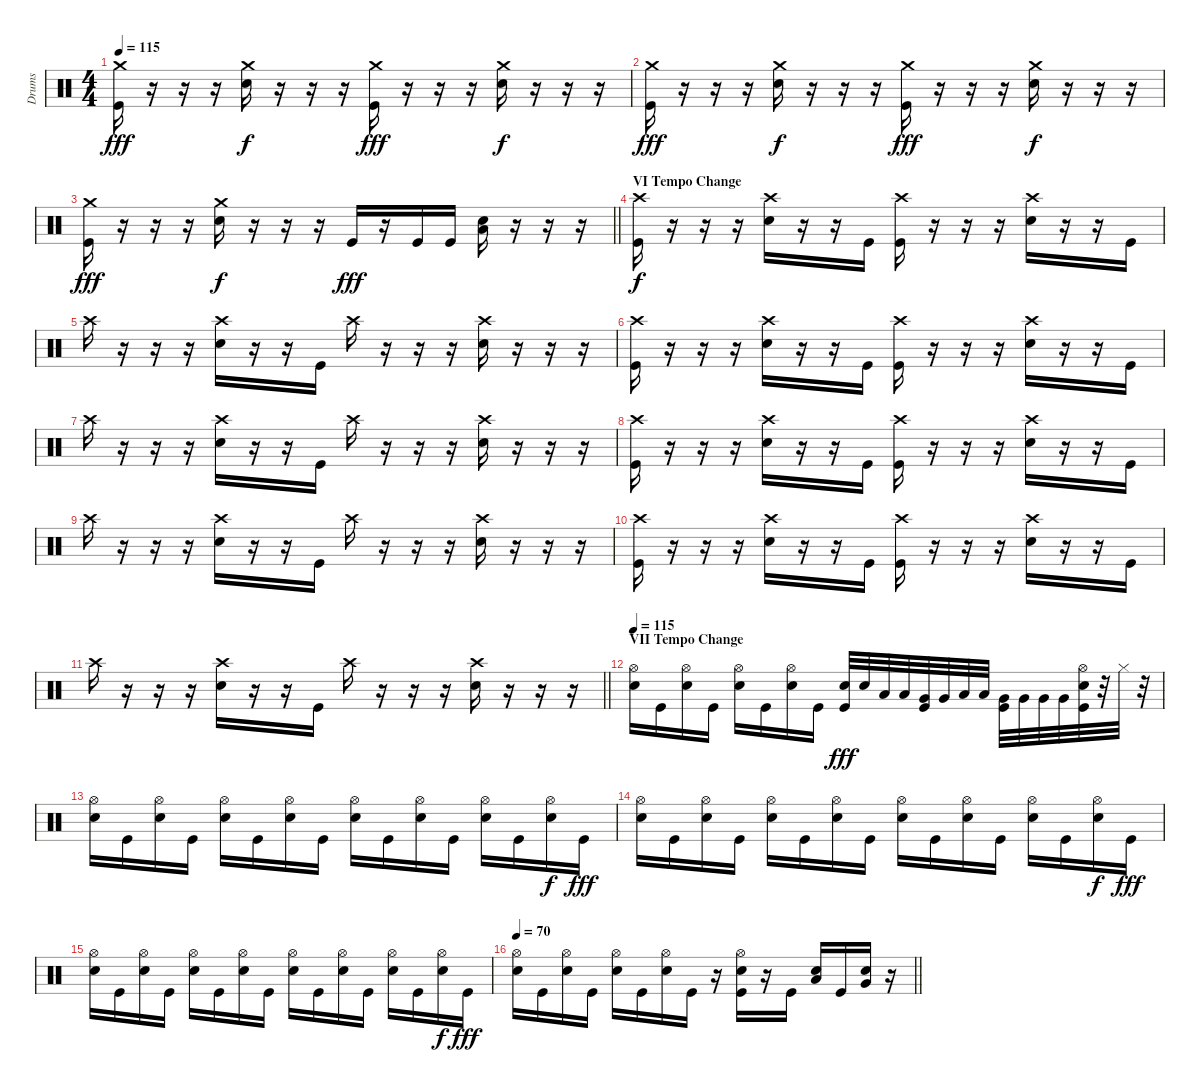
\track ("Drums" "Drums") {instrument percussion}
\staff {score}
\articulation defaults
\ts (4 4)
\tempo 115
\clef neutral
\ks c
("Crash medium (hit)" "Kick (hit)").16{dy fff} r.16 r.16 r.16 ("Crash medium (hit)" "Electric Snare (hit)").16{dy f} r.16 r.16 r.16 ("Crash medium (hit)" "Kick (hit)").16{dy fff} r.16 r.16 r.16 ("Crash medium (hit)" "Electric Snare (hit)").16{dy f} r.16 r.16 r.16 |
("Crash medium (hit)" "Kick (hit)").16{dy fff} r.16 r.16 r.16 ("Crash medium (hit)" "Electric Snare (hit)").16{dy f} r.16 r.16 r.16 ("Crash medium (hit)" "Kick (hit)").16{dy fff} r.16 r.16 r.16 ("Crash medium (hit)" "Electric Snare (hit)").16{dy f} r.16 r.16 r.16 |
\barLineRight lightlight
("Crash medium (hit)" "Kick (hit)").16{dy fff} r.16 r.16 r.16 ("Crash medium (hit)" "Electric Snare (hit)").16{dy f} r.16 r.16 r.16 "Kick (hit)".16{dy fff} r.16 "Kick (hit)".16 "Kick (hit)".16 ("Electric Snare (hit)" "Low Floor Tom (hit)").16 r.16 r.16 r.16 |
\section ("" "VI Tempo Change")
("Crash high (hit)" "Kick (hit)").16{dy f} r.16 r.16 r.16 ("Crash high (hit)" "Electric Snare (hit)").16 r.16 r.16 "Kick (hit)".16 ("Crash high (hit)" "Kick (hit)").16 r.16 r.16 r.16 ("Crash high (hit)" "Electric Snare (hit)").16 r.16 r.16 "Kick (hit)".16 |
"Crash high (hit)".16 r.16 r.16 r.16 ("Crash high (hit)" "Electric Snare (hit)").16 r.16 r.16 "Kick (hit)".16 "Crash high (hit)".16 r.16 r.16 r.16 ("Crash high (hit)" "Electric Snare (hit)").16 r.16 r.16 r.16 |
("Crash high (hit)" "Kick (hit)").16 r.16 r.16 r.16 ("Crash high (hit)" "Electric Snare (hit)").16 r.16 r.16 "Kick (hit)".16 ("Crash high (hit)" "Kick (hit)").16 r.16 r.16 r.16 ("Crash high (hit)" "Electric Snare (hit)").16 r.16 r.16 "Kick (hit)".16 |
"Crash high (hit)".16 r.16 r.16 r.16 ("Crash high (hit)" "Electric Snare (hit)").16 r.16 r.16 "Kick (hit)".16 "Crash high (hit)".16 r.16 r.16 r.16 ("Crash high (hit)" "Electric Snare (hit)").16 r.16 r.16 r.16 |
("Crash high (hit)" "Kick (hit)").16 r.16 r.16 r.16 ("Crash high (hit)" "Electric Snare (hit)").16 r.16 r.16 "Kick (hit)".16 ("Crash high (hit)" "Kick (hit)").16 r.16 r.16 r.16 ("Crash high (hit)" "Electric Snare (hit)").16 r.16 r.16 "Kick (hit)".16 |
"Crash high (hit)".16 r.16 r.16 r.16 ("Crash high (hit)" "Electric Snare (hit)").16 r.16 r.16 "Kick (hit)".16 "Crash high (hit)".16 r.16 r.16 r.16 ("Crash high (hit)" "Electric Snare (hit)").16 r.16 r.16 r.16 |
("Crash high (hit)" "Kick (hit)").16 r.16 r.16 r.16 ("Crash high (hit)" "Electric Snare (hit)").16 r.16 r.16 "Kick (hit)".16 ("Crash high (hit)" "Kick (hit)").16 r.16 r.16 r.16 ("Crash high (hit)" "Electric Snare (hit)").16 r.16 r.16 "Kick (hit)".16 |
\barLineRight lightlight "Crash high (hit)".16
r.16 r.16 r.16 ("Crash high (hit)" "Electric Snare (hit)").16 r.16 r.16 "Kick (hit)".16 "Crash high (hit)".16 r.16 r.16 r.16 ("Crash high (hit)" "Electric Snare (hit)").16 r.16 r.16 r.16 |
\section ("" "VII Tempo Change")
\tempo 115
("Hi-Hat (open)" "Electric Snare (hit)").16 "Kick (hit)".16 ("Hi-Hat (open)" "Electric Snare (hit)").16 "Kick (hit)".16 ("Hi-Hat (open)" "Electric Snare (hit)").16 "Kick (hit)".16 ("Hi-Hat (open)" "Electric Snare (hit)").16 "Kick (hit)".16 ("Electric Snare (hit)" "Kick (hit)").32{dy fff} "Electric Snare (hit)".32 "Low Tom (hit)".32 "Low Tom (hit)".32 ("Very Low Tom (hit)" "Kick (hit)").32 "Very Low Tom (hit)".32 "Low Tom (hit)".32 "Low Tom (hit)".32 ("Very Low Tom (hit)" "Kick (hit)").32 "Very Low Tom (hit)".32 "Very Low Tom (hit)".32 "Very Low Tom (hit)".32 ("Hi-Hat (open)" "Electric Snare (hit)" "Kick (hit)").32 r.32 "Hi-Hat (closed)".32 r.32 |
("Hi-Hat (open)" "Electric Snare (hit)").16 "Kick (hit)".16 ("Hi-Hat (open)" "Electric Snare (hit)").16 "Kick (hit)".16 ("Hi-Hat (open)" "Electric Snare (hit)").16 "Kick (hit)".16 ("Hi-Hat (open)" "Electric Snare (hit)").16 "Kick (hit)".16 ("Hi-Hat (open)" "Electric Snare (hit)").16 "Kick (hit)".16 ("Hi-Hat (open)" "Electric Snare (hit)").16 "Kick (hit)".16 ("Hi-Hat (open)" "Electric Snare (hit)").16 "Kick (hit)".16 ("Hi-Hat (open)" "Electric Snare (hit)").16{dy f} "Kick (hit)".16{dy fff} |
("Hi-Hat (open)" "Electric Snare (hit)").16 "Kick (hit)".16 ("Hi-Hat (open)" "Electric Snare (hit)").16 "Kick (hit)".16 ("Hi-Hat (open)" "Electric Snare (hit)").16 "Kick (hit)".16 ("Hi-Hat (open)" "Electric Snare (hit)").16 "Kick (hit)".16 ("Hi-Hat (open)" "Electric Snare (hit)").16 "Kick (hit)".16 ("Hi-Hat (open)" "Electric Snare (hit)").16 "Kick (hit)".16 ("Hi-Hat (open)" "Electric Snare (hit)").16 "Kick (hit)".16 ("Hi-Hat (open)" "Electric Snare (hit)").16{dy f} "Kick (hit)".16{dy fff} |
("Hi-Hat (open)" "Electric Snare (hit)").16 "Kick (hit)".16 ("Hi-Hat (open)" "Electric Snare (hit)").16 "Kick (hit)".16 ("Hi-Hat (open)" "Electric Snare (hit)").16 "Kick (hit)".16 ("Hi-Hat (open)" "Electric Snare (hit)").16 "Kick (hit)".16 ("Hi-Hat (open)" "Electric Snare (hit)").16 "Kick (hit)".16 ("Hi-Hat (open)" "Electric Snare (hit)").16 "Kick (hit)".16 ("Hi-Hat (open)" "Electric Snare (hit)").16 "Kick (hit)".16 ("Hi-Hat (open)" "Electric Snare (hit)").16{dy f} "Kick (hit)".16{dy fff} |
\tempo 70
\barLineRight lightlight
("Hi-Hat (open)" "Electric Snare (hit)").16 "Kick (hit)".16 ("Hi-Hat (open)" "Electric Snare (hit)").16 "Kick (hit)".16 ("Hi-Hat (open)" "Electric Snare (hit)").16 "Kick (hit)".16 ("Hi-Hat (open)" "Electric Snare (hit)").16 "Kick (hit)".16 r.16 ("Hi-Hat (open)" "Electric Snare (hit)" "Kick (hit)").16 r.16 "Kick (hit)".16 ("Electric Snare (hit)" "Low Floor Tom (hit)").16 "Kick (hit)".16 ("Electric Snare (hit)" "Very Low Tom (hit)").16 r.16
